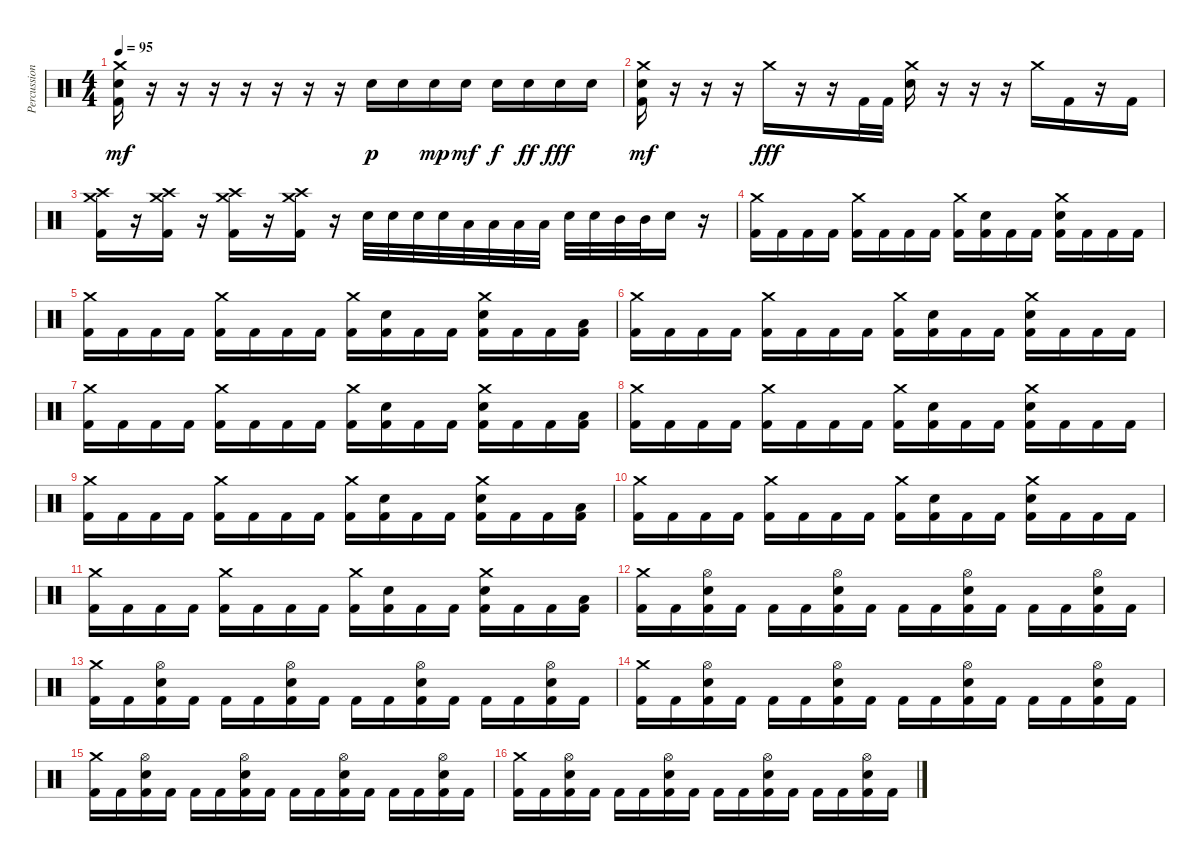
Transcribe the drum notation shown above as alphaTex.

\track ("Percussion" "Percussion") {instrument percussion}
\staff {score}
\articulation defaults
\ts (4 4)
\tempo 95
\clef neutral
\ks c
("Crash medium (hit)" "Electric Snare (hit)" "Kick (hit) 2").16{dy mf} r.16 r.16 r.16 r.16 r.16 r.16 r.16 "Electric Snare (hit)".16{dy p} "Electric Snare (hit)".16 "Electric Snare (hit)".16{dy mp} "Electric Snare (hit)".16{dy mf} "Electric Snare (hit)".16{dy f} "Electric Snare (hit)".16{dy ff} "Electric Snare (hit)".16{dy fff} "Electric Snare (hit)".16 |
("Crash medium (hit)" "Electric Snare (hit)" "Kick (hit) 2").16{dy mf} r.16 r.16 r.16 "Crash medium (hit)".16{dy fff} r.16 r.16 "Kick (hit) 2".32 "Kick (hit) 2".32 ("Crash medium (hit)" "Electric Snare (hit)").16 r.16 r.16 r.16 "Crash medium (hit)".16 "Kick (hit) 2".16 r.16 "Kick (hit) 2".16 |
("Crash medium (hit)" "Crash high (hit)" "Kick (hit) 2").16 r.16 ("Crash medium (hit)" "Crash high (hit)" "Kick (hit) 2").16 r.16 ("Crash medium (hit)" "Crash high (hit)" "Kick (hit) 2").16 r.16 ("Crash medium (hit)" "Crash high (hit)" "Kick (hit) 2").16 r.16 "Electric Snare (hit)".32 "Electric Snare (hit)".32 "Electric Snare (hit)".32 "Electric Snare (hit)".32 "Low Floor Tom (hit)".32 "Low Floor Tom (hit)".32 "Low Floor Tom (hit)".32 "Low Floor Tom (hit)".32 "Electric Snare (hit)".32 "Electric Snare (hit)".32 "Mid Tom (hit)".32 "Mid Tom (hit)".32 "Electric Snare (hit)".16 r.16 |
("Crash medium (hit)" "Kick (hit) 2").16 "Kick (hit) 2".16 "Kick (hit) 2".16 "Kick (hit) 2".16 ("Crash medium (hit)" "Kick (hit) 2").16 "Kick (hit) 2".16 "Kick (hit) 2".16 "Kick (hit) 2".16 ("Crash medium (hit)" "Kick (hit) 2").16 ("Electric Snare (hit)" "Kick (hit) 2").16 "Kick (hit) 2".16 "Kick (hit) 2".16 ("Crash medium (hit)" "Electric Snare (hit)" "Kick (hit) 2").16 "Kick (hit) 2".16 "Kick (hit) 2".16 "Kick (hit) 2".16 |
("Crash medium (hit)" "Kick (hit) 2").16 "Kick (hit) 2".16 "Kick (hit) 2".16 "Kick (hit) 2".16 ("Crash medium (hit)" "Kick (hit) 2").16 "Kick (hit) 2".16 "Kick (hit) 2".16 "Kick (hit) 2".16 ("Crash medium (hit)" "Kick (hit) 2").16 ("Electric Snare (hit)" "Kick (hit) 2").16 "Kick (hit) 2".16 "Kick (hit) 2".16 ("Crash medium (hit)" "Electric Snare (hit)" "Kick (hit) 2").16 "Kick (hit) 2".16 "Kick (hit) 2".16 ("Low Floor Tom (hit)" "Kick (hit) 2").16 |
("Crash medium (hit)" "Kick (hit) 2").16 "Kick (hit) 2".16 "Kick (hit) 2".16 "Kick (hit) 2".16 ("Crash medium (hit)" "Kick (hit) 2").16 "Kick (hit) 2".16 "Kick (hit) 2".16 "Kick (hit) 2".16 ("Crash medium (hit)" "Kick (hit) 2").16 ("Electric Snare (hit)" "Kick (hit) 2").16 "Kick (hit) 2".16 "Kick (hit) 2".16 ("Crash medium (hit)" "Electric Snare (hit)" "Kick (hit) 2").16 "Kick (hit) 2".16 "Kick (hit) 2".16 "Kick (hit) 2".16 |
("Crash medium (hit)" "Kick (hit) 2").16 "Kick (hit) 2".16 "Kick (hit) 2".16 "Kick (hit) 2".16 ("Crash medium (hit)" "Kick (hit) 2").16 "Kick (hit) 2".16 "Kick (hit) 2".16 "Kick (hit) 2".16 ("Crash medium (hit)" "Kick (hit) 2").16 ("Electric Snare (hit)" "Kick (hit) 2").16 "Kick (hit) 2".16 "Kick (hit) 2".16 ("Crash medium (hit)" "Electric Snare (hit)" "Kick (hit) 2").16 "Kick (hit) 2".16 "Kick (hit) 2".16 ("Low Floor Tom (hit)" "Kick (hit) 2").16 |
("Crash medium (hit)" "Kick (hit) 2").16 "Kick (hit) 2".16 "Kick (hit) 2".16 "Kick (hit) 2".16 ("Crash medium (hit)" "Kick (hit) 2").16 "Kick (hit) 2".16 "Kick (hit) 2".16 "Kick (hit) 2".16 ("Crash medium (hit)" "Kick (hit) 2").16 ("Electric Snare (hit)" "Kick (hit) 2").16 "Kick (hit) 2".16 "Kick (hit) 2".16 ("Crash medium (hit)" "Electric Snare (hit)" "Kick (hit) 2").16 "Kick (hit) 2".16 "Kick (hit) 2".16 "Kick (hit) 2".16 |
("Crash medium (hit)" "Kick (hit) 2").16 "Kick (hit) 2".16 "Kick (hit) 2".16 "Kick (hit) 2".16 ("Crash medium (hit)" "Kick (hit) 2").16 "Kick (hit) 2".16 "Kick (hit) 2".16 "Kick (hit) 2".16 ("Crash medium (hit)" "Kick (hit) 2").16 ("Electric Snare (hit)" "Kick (hit) 2").16 "Kick (hit) 2".16 "Kick (hit) 2".16 ("Crash medium (hit)" "Electric Snare (hit)" "Kick (hit) 2").16 "Kick (hit) 2".16 "Kick (hit) 2".16 ("Low Floor Tom (hit)" "Kick (hit) 2").16 |
("Crash medium (hit)" "Kick (hit) 2").16 "Kick (hit) 2".16 "Kick (hit) 2".16 "Kick (hit) 2".16 ("Crash medium (hit)" "Kick (hit) 2").16 "Kick (hit) 2".16 "Kick (hit) 2".16 "Kick (hit) 2".16 ("Crash medium (hit)" "Kick (hit) 2").16 ("Electric Snare (hit)" "Kick (hit) 2").16 "Kick (hit) 2".16 "Kick (hit) 2".16 ("Crash medium (hit)" "Electric Snare (hit)" "Kick (hit) 2").16 "Kick (hit) 2".16 "Kick (hit) 2".16 "Kick (hit) 2".16 |
("Crash medium (hit)" "Kick (hit) 2").16 "Kick (hit) 2".16 "Kick (hit) 2".16 "Kick (hit) 2".16 ("Crash medium (hit)" "Kick (hit) 2").16 "Kick (hit) 2".16 "Kick (hit) 2".16 "Kick (hit) 2".16 ("Crash medium (hit)" "Kick (hit) 2").16 ("Electric Snare (hit)" "Kick (hit) 2").16 "Kick (hit) 2".16 "Kick (hit) 2".16 ("Crash medium (hit)" "Electric Snare (hit)" "Kick (hit) 2").16 "Kick (hit) 2".16 "Kick (hit) 2".16 ("Low Floor Tom (hit)" "Kick (hit) 2").16 |
("Crash medium (hit)" "Kick (hit) 2").16 "Kick (hit) 2".16 ("Hi-Hat (open)" "Electric Snare (hit)" "Kick (hit) 2").16 "Kick (hit) 2".16 "Kick (hit) 2".16 "Kick (hit) 2".16 ("Hi-Hat (open)" "Electric Snare (hit)" "Kick (hit) 2").16 "Kick (hit) 2".16 "Kick (hit) 2".16 "Kick (hit) 2".16 ("Hi-Hat (open)" "Electric Snare (hit)" "Kick (hit) 2").16 "Kick (hit) 2".16 "Kick (hit) 2".16 "Kick (hit) 2".16 ("Hi-Hat (open)" "Electric Snare (hit)" "Kick (hit) 2").16 "Kick (hit) 2".16 |
("Crash medium (hit)" "Kick (hit) 2").16 "Kick (hit) 2".16 ("Hi-Hat (open)" "Electric Snare (hit)" "Kick (hit) 2").16 "Kick (hit) 2".16 "Kick (hit) 2".16 "Kick (hit) 2".16 ("Hi-Hat (open)" "Electric Snare (hit)" "Kick (hit) 2").16 "Kick (hit) 2".16 "Kick (hit) 2".16 "Kick (hit) 2".16 ("Hi-Hat (open)" "Electric Snare (hit)" "Kick (hit) 2").16 "Kick (hit) 2".16 "Kick (hit) 2".16 "Kick (hit) 2".16 ("Hi-Hat (open)" "Electric Snare (hit)" "Kick (hit) 2").16 "Kick (hit) 2".16 |
("Crash medium (hit)" "Kick (hit) 2").16 "Kick (hit) 2".16 ("Hi-Hat (open)" "Electric Snare (hit)" "Kick (hit) 2").16 "Kick (hit) 2".16 "Kick (hit) 2".16 "Kick (hit) 2".16 ("Hi-Hat (open)" "Electric Snare (hit)" "Kick (hit) 2").16 "Kick (hit) 2".16 "Kick (hit) 2".16 "Kick (hit) 2".16 ("Hi-Hat (open)" "Electric Snare (hit)" "Kick (hit) 2").16 "Kick (hit) 2".16 "Kick (hit) 2".16 "Kick (hit) 2".16 ("Hi-Hat (open)" "Electric Snare (hit)" "Kick (hit) 2").16 "Kick (hit) 2".16 |
("Crash medium (hit)" "Kick (hit) 2").16 "Kick (hit) 2".16 ("Hi-Hat (open)" "Electric Snare (hit)" "Kick (hit) 2").16 "Kick (hit) 2".16 "Kick (hit) 2".16 "Kick (hit) 2".16 ("Hi-Hat (open)" "Electric Snare (hit)" "Kick (hit) 2").16 "Kick (hit) 2".16 "Kick (hit) 2".16 "Kick (hit) 2".16 ("Hi-Hat (open)" "Electric Snare (hit)" "Kick (hit) 2").16 "Kick (hit) 2".16 "Kick (hit) 2".16 "Kick (hit) 2".16 ("Hi-Hat (open)" "Electric Snare (hit)" "Kick (hit) 2").16 "Kick (hit) 2".16 |
("Crash medium (hit)" "Kick (hit) 2").16 "Kick (hit) 2".16 ("Hi-Hat (open)" "Electric Snare (hit)" "Kick (hit) 2").16 "Kick (hit) 2".16 "Kick (hit) 2".16 "Kick (hit) 2".16 ("Hi-Hat (open)" "Electric Snare (hit)" "Kick (hit) 2").16 "Kick (hit) 2".16 "Kick (hit) 2".16 "Kick (hit) 2".16 ("Hi-Hat (open)" "Electric Snare (hit)" "Kick (hit) 2").16 "Kick (hit) 2".16 "Kick (hit) 2".16 "Kick (hit) 2".16 ("Hi-Hat (open)" "Electric Snare (hit)" "Kick (hit) 2").16 "Kick (hit) 2".16
